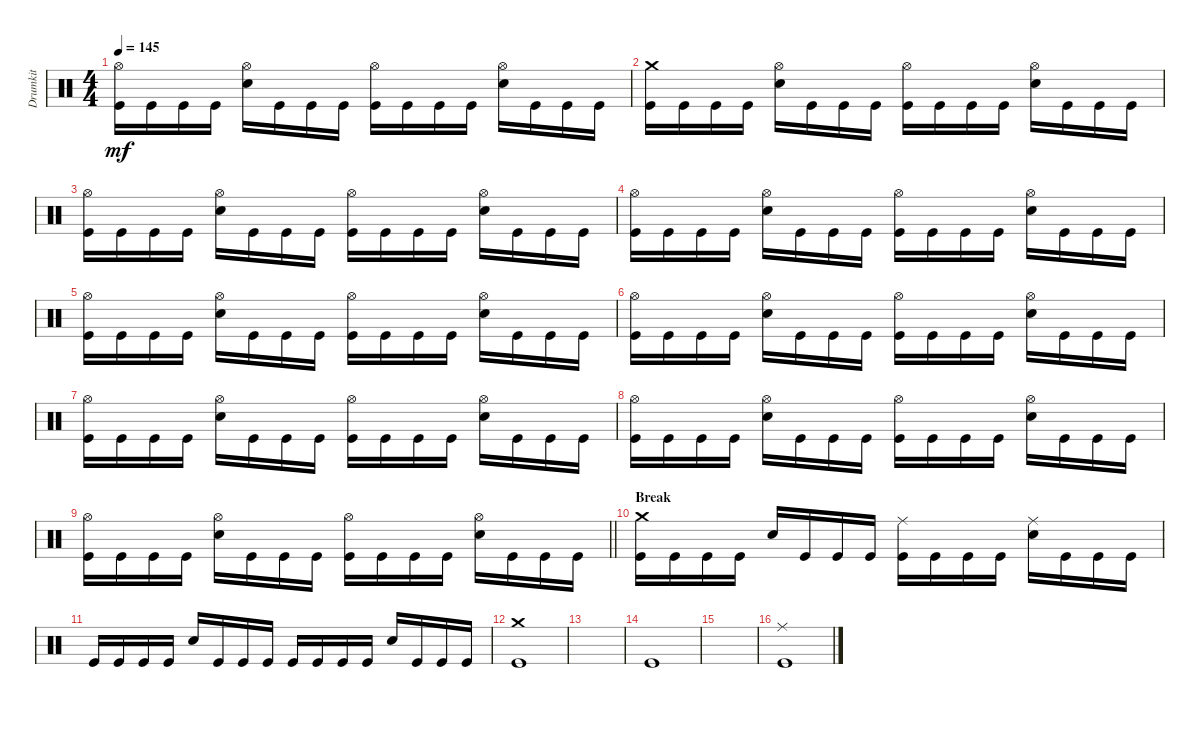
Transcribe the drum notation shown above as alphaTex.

\track ("Drumkit" "Drumkit") {instrument percussion}
\staff {score}
\articulation defaults
\ts (4 4)
\tempo 145
\clef neutral
\ks c
("Kick (hit)" "Hi-Hat (open)").16{dy mf} "Kick (hit)".16 "Kick (hit)".16 "Kick (hit)".16 ("Snare (hit) 2" "Hi-Hat (open)").16 "Kick (hit)".16 "Kick (hit)".16 "Kick (hit)".16 ("Kick (hit)" "Hi-Hat (open)").16 "Kick (hit)".16 "Kick (hit)".16 "Kick (hit)".16 ("Snare (hit) 2" "Hi-Hat (open)").16 "Kick (hit)".16 "Kick (hit)".16 "Kick (hit)".16 |
("Kick (hit)" "Crash medium (hit)").16 "Kick (hit)".16 "Kick (hit)".16 "Kick (hit)".16 ("Snare (hit) 2" "Hi-Hat (open)").16 "Kick (hit)".16 "Kick (hit)".16 "Kick (hit)".16 ("Kick (hit)" "Hi-Hat (open)").16 "Kick (hit)".16 "Kick (hit)".16 "Kick (hit)".16 ("Snare (hit) 2" "Hi-Hat (open)").16 "Kick (hit)".16 "Kick (hit)".16 "Kick (hit)".16 |
("Kick (hit)" "Hi-Hat (open)").16 "Kick (hit)".16 "Kick (hit)".16 "Kick (hit)".16 ("Snare (hit) 2" "Hi-Hat (open)").16 "Kick (hit)".16 "Kick (hit)".16 "Kick (hit)".16 ("Kick (hit)" "Hi-Hat (open)").16 "Kick (hit)".16 "Kick (hit)".16 "Kick (hit)".16 ("Snare (hit) 2" "Hi-Hat (open)").16 "Kick (hit)".16 "Kick (hit)".16 "Kick (hit)".16 |
("Kick (hit)" "Hi-Hat (open)").16 "Kick (hit)".16 "Kick (hit)".16 "Kick (hit)".16 ("Snare (hit) 2" "Hi-Hat (open)").16 "Kick (hit)".16 "Kick (hit)".16 "Kick (hit)".16 ("Kick (hit)" "Hi-Hat (open)").16 "Kick (hit)".16 "Kick (hit)".16 "Kick (hit)".16 ("Snare (hit) 2" "Hi-Hat (open)").16 "Kick (hit)".16 "Kick (hit)".16 "Kick (hit)".16 |
("Kick (hit)" "Hi-Hat (open)").16 "Kick (hit)".16 "Kick (hit)".16 "Kick (hit)".16 ("Snare (hit) 2" "Hi-Hat (open)").16 "Kick (hit)".16 "Kick (hit)".16 "Kick (hit)".16 ("Kick (hit)" "Hi-Hat (open)").16 "Kick (hit)".16 "Kick (hit)".16 "Kick (hit)".16 ("Snare (hit) 2" "Hi-Hat (open)").16 "Kick (hit)".16 "Kick (hit)".16 "Kick (hit)".16 |
("Kick (hit)" "Hi-Hat (open)").16 "Kick (hit)".16 "Kick (hit)".16 "Kick (hit)".16 ("Snare (hit) 2" "Hi-Hat (open)").16 "Kick (hit)".16 "Kick (hit)".16 "Kick (hit)".16 ("Kick (hit)" "Hi-Hat (open)").16 "Kick (hit)".16 "Kick (hit)".16 "Kick (hit)".16 ("Snare (hit) 2" "Hi-Hat (open)").16 "Kick (hit)".16 "Kick (hit)".16 "Kick (hit)".16 |
("Kick (hit)" "Hi-Hat (open)").16 "Kick (hit)".16 "Kick (hit)".16 "Kick (hit)".16 ("Snare (hit) 2" "Hi-Hat (open)").16 "Kick (hit)".16 "Kick (hit)".16 "Kick (hit)".16 ("Kick (hit)" "Hi-Hat (open)").16 "Kick (hit)".16 "Kick (hit)".16 "Kick (hit)".16 ("Snare (hit) 2" "Hi-Hat (open)").16 "Kick (hit)".16 "Kick (hit)".16 "Kick (hit)".16 |
("Kick (hit)" "Hi-Hat (open)").16 "Kick (hit)".16 "Kick (hit)".16 "Kick (hit)".16 ("Snare (hit) 2" "Hi-Hat (open)").16 "Kick (hit)".16 "Kick (hit)".16 "Kick (hit)".16 ("Kick (hit)" "Hi-Hat (open)").16 "Kick (hit)".16 "Kick (hit)".16 "Kick (hit)".16 ("Snare (hit) 2" "Hi-Hat (open)").16 "Kick (hit)".16 "Kick (hit)".16 "Kick (hit)".16 |
\barLineRight lightlight
("Kick (hit)" "Hi-Hat (open)").16 "Kick (hit)".16 "Kick (hit)".16 "Kick (hit)".16 ("Snare (hit) 2" "Hi-Hat (open)").16 "Kick (hit)".16 "Kick (hit)".16 "Kick (hit)".16 ("Kick (hit)" "Hi-Hat (open)").16 "Kick (hit)".16 "Kick (hit)".16 "Kick (hit)".16 ("Snare (hit) 2" "Hi-Hat (open)").16 "Kick (hit)".16 "Kick (hit)".16 "Kick (hit)".16 |
\section ("" "Break")
("Kick (hit)" "Crash medium (hit)").16 "Kick (hit)".16 "Kick (hit)".16 "Kick (hit)".16 "Snare (hit) 2".16 "Kick (hit)".16 "Kick (hit)".16 "Kick (hit)".16 ("Kick (hit)" "Ride (middle)").16 "Kick (hit)".16 "Kick (hit)".16 "Kick (hit)".16 ("Snare (hit) 2" "Ride (middle)").16 "Kick (hit)".16 "Kick (hit)".16 "Kick (hit)".16 |
"Kick (hit)".16 "Kick (hit)".16 "Kick (hit)".16 "Kick (hit)".16 "Snare (hit) 2".16 "Kick (hit)".16 "Kick (hit)".16 "Kick (hit)".16 "Kick (hit)".16 "Kick (hit)".16 "Kick (hit)".16 "Kick (hit)".16 "Snare (hit) 2".16 "Kick (hit)".16 "Kick (hit)".16 "Kick (hit)".16 |
("Kick (hit)" "Crash medium (hit)").1 |
|
"Kick (hit)".1 |
|
("Kick (hit)" "Ride (middle)").1
